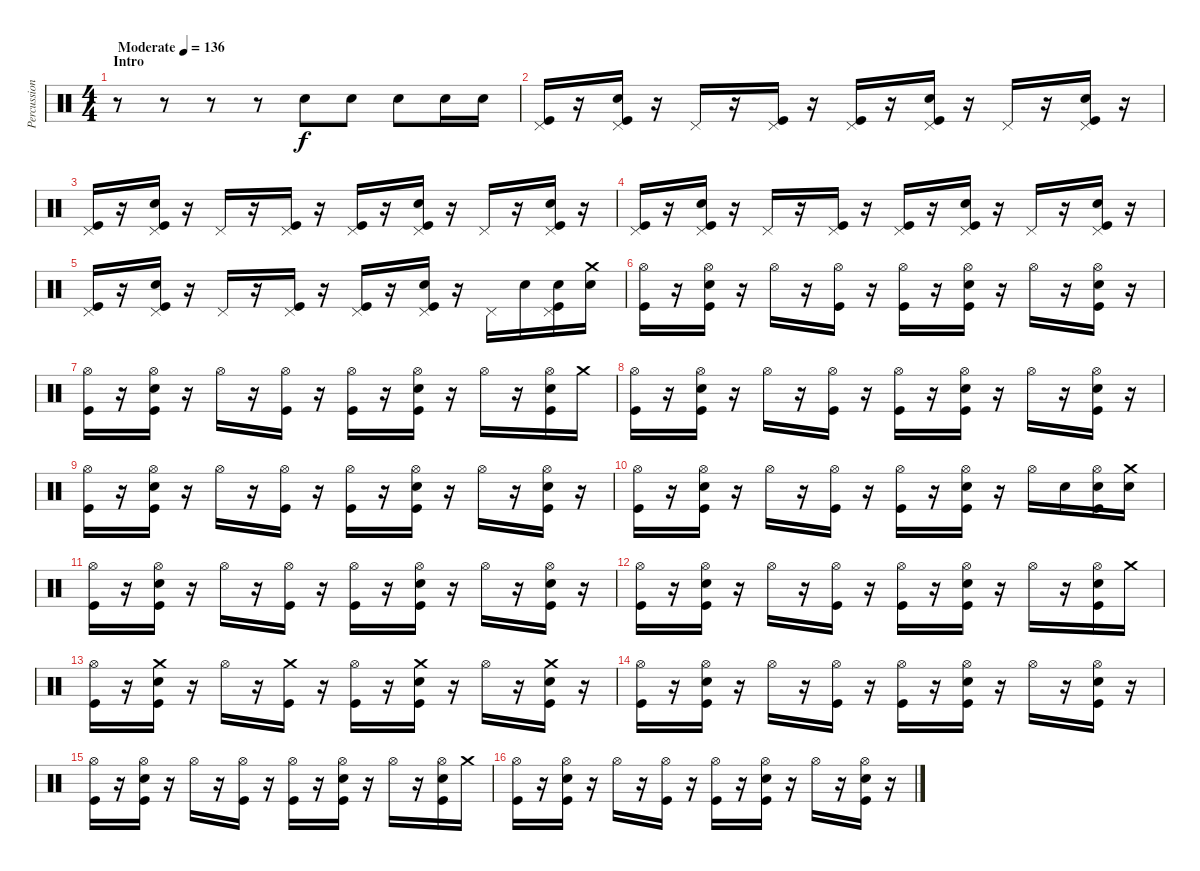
\track ("Percussion" "Percussion") {instrument percussion}
\staff {score}
\articulation defaults
\ts (4 4)
\section ("" "Intro")
\tempo (136 "Moderate")
\clef neutral
\ks c
r.8{dy f} r.8 r.8 r.8 "Snare (hit) 2".8 "Snare (hit) 2".8 "Snare (hit) 2".8 "Snare (hit) 2".16 "Snare (hit) 2".16 |
("Kick (hit)" "Pedal Hi-Hat (hit)").16 r.16 ("Kick (hit)" "Snare (hit) 2" "Pedal Hi-Hat (hit)").16 r.16 "Pedal Hi-Hat (hit)".16 r.16 ("Kick (hit)" "Pedal Hi-Hat (hit)").16 r.16 ("Kick (hit)" "Pedal Hi-Hat (hit)").16 r.16 ("Kick (hit)" "Snare (hit) 2" "Pedal Hi-Hat (hit)").16 r.16 "Pedal Hi-Hat (hit)".16 r.16 ("Kick (hit)" "Snare (hit) 2" "Pedal Hi-Hat (hit)").16 r.16 |
("Kick (hit)" "Pedal Hi-Hat (hit)").16 r.16 ("Kick (hit)" "Snare (hit) 2" "Pedal Hi-Hat (hit)").16 r.16 "Pedal Hi-Hat (hit)".16 r.16 ("Kick (hit)" "Pedal Hi-Hat (hit)").16 r.16 ("Kick (hit)" "Pedal Hi-Hat (hit)").16 r.16 ("Kick (hit)" "Snare (hit) 2" "Pedal Hi-Hat (hit)").16 r.16 "Pedal Hi-Hat (hit)".16 r.16 ("Kick (hit)" "Snare (hit) 2" "Pedal Hi-Hat (hit)").16 r.16 |
("Kick (hit)" "Pedal Hi-Hat (hit)").16 r.16 ("Kick (hit)" "Snare (hit) 2" "Pedal Hi-Hat (hit)").16 r.16 "Pedal Hi-Hat (hit)".16 r.16 ("Kick (hit)" "Pedal Hi-Hat (hit)").16 r.16 ("Kick (hit)" "Pedal Hi-Hat (hit)").16 r.16 ("Kick (hit)" "Snare (hit) 2" "Pedal Hi-Hat (hit)").16 r.16 "Pedal Hi-Hat (hit)".16 r.16 ("Kick (hit)" "Snare (hit) 2" "Pedal Hi-Hat (hit)").16 r.16 |
("Kick (hit)" "Pedal Hi-Hat (hit)").16 r.16 ("Kick (hit)" "Snare (hit) 2" "Pedal Hi-Hat (hit)").16 r.16 "Pedal Hi-Hat (hit)".16 r.16 ("Kick (hit)" "Pedal Hi-Hat (hit)").16 r.16 ("Kick (hit)" "Pedal Hi-Hat (hit)").16 r.16 ("Kick (hit)" "Snare (hit) 2" "Pedal Hi-Hat (hit)").16 r.16 "Pedal Hi-Hat (hit)".16 "Electric Snare (hit)".16 ("Kick (hit)" "Snare (hit) 2" "Pedal Hi-Hat (hit)").16 ("Crash medium (hit)" "Electric Snare (hit)").16 |
("Kick (hit)" "Hi-Hat (open)").16 r.16 ("Kick (hit)" "Snare (hit) 2" "Hi-Hat (open)").16 r.16 "Hi-Hat (open)".16 r.16 ("Kick (hit)" "Hi-Hat (open)").16 r.16 ("Kick (hit)" "Hi-Hat (open)").16 r.16 ("Kick (hit)" "Snare (hit) 2" "Hi-Hat (open)").16 r.16 "Hi-Hat (open)".16 r.16 ("Kick (hit)" "Snare (hit) 2" "Hi-Hat (open)").16 r.16 |
("Kick (hit)" "Hi-Hat (open)").16 r.16 ("Kick (hit)" "Snare (hit) 2" "Hi-Hat (open)").16 r.16 "Hi-Hat (open)".16 r.16 ("Kick (hit)" "Hi-Hat (open)").16 r.16 ("Kick (hit)" "Hi-Hat (open)").16 r.16 ("Kick (hit)" "Snare (hit) 2" "Hi-Hat (open)").16 r.16 "Hi-Hat (open)".16 r.16 ("Kick (hit)" "Snare (hit) 2" "Hi-Hat (open)").16 "Crash medium (hit)".16 |
("Kick (hit)" "Hi-Hat (open)").16 r.16 ("Kick (hit)" "Snare (hit) 2" "Hi-Hat (open)").16 r.16 "Hi-Hat (open)".16 r.16 ("Kick (hit)" "Hi-Hat (open)").16 r.16 ("Kick (hit)" "Hi-Hat (open)").16 r.16 ("Kick (hit)" "Snare (hit) 2" "Hi-Hat (open)").16 r.16 "Hi-Hat (open)".16 r.16 ("Kick (hit)" "Snare (hit) 2" "Hi-Hat (open)").16 r.16 |
("Kick (hit)" "Hi-Hat (open)").16 r.16 ("Kick (hit)" "Snare (hit) 2" "Hi-Hat (open)").16 r.16 "Hi-Hat (open)".16 r.16 ("Kick (hit)" "Hi-Hat (open)").16 r.16 ("Kick (hit)" "Hi-Hat (open)").16 r.16 ("Kick (hit)" "Snare (hit) 2" "Hi-Hat (open)").16 r.16 "Hi-Hat (open)".16 r.16 ("Kick (hit)" "Snare (hit) 2" "Hi-Hat (open)").16 r.16 |
("Kick (hit)" "Hi-Hat (open)").16 r.16 ("Kick (hit)" "Snare (hit) 2" "Hi-Hat (open)").16 r.16 "Hi-Hat (open)".16 r.16 ("Kick (hit)" "Hi-Hat (open)").16 r.16 ("Kick (hit)" "Hi-Hat (open)").16 r.16 ("Kick (hit)" "Snare (hit) 2" "Hi-Hat (open)").16 r.16 "Hi-Hat (open)".16 "Electric Snare (hit)".16 ("Kick (hit)" "Snare (hit) 2" "Hi-Hat (open)").16 ("Crash medium (hit)" "Electric Snare (hit)").16 |
("Kick (hit)" "Hi-Hat (open)").16 r.16 ("Kick (hit)" "Snare (hit) 2" "Hi-Hat (open)").16 r.16 "Hi-Hat (open)".16 r.16 ("Kick (hit)" "Hi-Hat (open)").16 r.16 ("Kick (hit)" "Hi-Hat (open)").16 r.16 ("Kick (hit)" "Snare (hit) 2" "Hi-Hat (open)").16 r.16 "Hi-Hat (open)".16 r.16 ("Kick (hit)" "Snare (hit) 2" "Hi-Hat (open)").16 r.16 |
("Kick (hit)" "Hi-Hat (open)").16 r.16 ("Kick (hit)" "Snare (hit) 2" "Hi-Hat (open)").16 r.16 "Hi-Hat (open)".16 r.16 ("Kick (hit)" "Hi-Hat (open)").16 r.16 ("Kick (hit)" "Hi-Hat (open)").16 r.16 ("Kick (hit)" "Snare (hit) 2" "Hi-Hat (open)").16 r.16 "Hi-Hat (open)".16 r.16 ("Kick (hit)" "Snare (hit) 2" "Hi-Hat (open)").16 "Crash medium (hit)".16 |
("Kick (hit)" "Hi-Hat (open)").16 r.16 ("Kick (hit)" "Snare (hit) 2" "Crash medium (hit)").16 r.16 "Hi-Hat (open)".16 r.16 ("Kick (hit)" "Crash medium (hit)").16 r.16 ("Kick (hit)" "Hi-Hat (open)").16 r.16 ("Kick (hit)" "Snare (hit) 2" "Crash medium (hit)").16 r.16 "Hi-Hat (open)".16 r.16 ("Kick (hit)" "Snare (hit) 2" "Crash medium (hit)").16 r.16 |
("Kick (hit)" "Hi-Hat (open)").16 r.16 ("Kick (hit)" "Snare (hit) 2" "Hi-Hat (open)").16 r.16 "Hi-Hat (open)".16 r.16 ("Kick (hit)" "Hi-Hat (open)").16 r.16 ("Kick (hit)" "Hi-Hat (open)").16 r.16 ("Kick (hit)" "Snare (hit) 2" "Hi-Hat (open)").16 r.16 "Hi-Hat (open)".16 r.16 ("Kick (hit)" "Snare (hit) 2" "Hi-Hat (open)").16 r.16 |
("Kick (hit)" "Hi-Hat (open)").16 r.16 ("Kick (hit)" "Snare (hit) 2" "Hi-Hat (open)").16 r.16 "Hi-Hat (open)".16 r.16 ("Kick (hit)" "Hi-Hat (open)").16 r.16 ("Kick (hit)" "Hi-Hat (open)").16 r.16 ("Kick (hit)" "Snare (hit) 2" "Hi-Hat (open)").16 r.16 "Hi-Hat (open)".16 r.16 ("Kick (hit)" "Snare (hit) 2" "Hi-Hat (open)").16 "Crash medium (hit)".16 |
("Kick (hit)" "Hi-Hat (open)").16 r.16 ("Kick (hit)" "Snare (hit) 2" "Hi-Hat (open)").16 r.16 "Hi-Hat (open)".16 r.16 ("Kick (hit)" "Hi-Hat (open)").16 r.16 ("Kick (hit)" "Hi-Hat (open)").16 r.16 ("Kick (hit)" "Snare (hit) 2" "Hi-Hat (open)").16 r.16 "Hi-Hat (open)".16 r.16 ("Kick (hit)" "Snare (hit) 2" "Hi-Hat (open)").16 r.16
